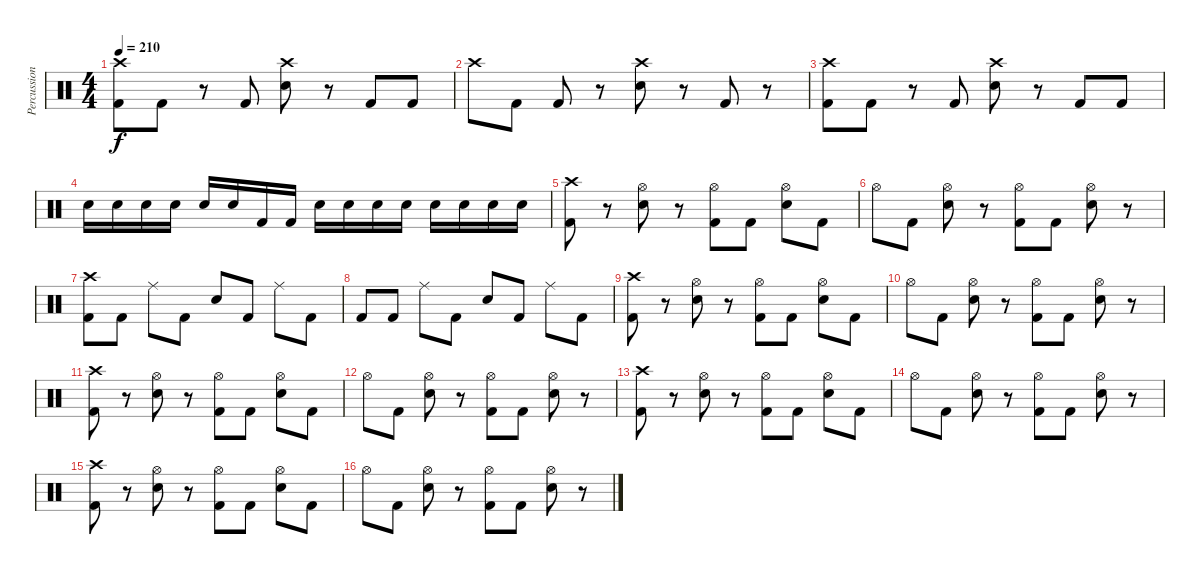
\track ("Percussion" "Percussion") {instrument percussion}
\staff {score}
\articulation defaults
\ts (4 4)
\tempo 210
\clef neutral
\ks c
("Crash high (hit)" "Kick (hit) 2").8{dy f} "Kick (hit) 2".8 r.8 "Kick (hit) 2".8 ("Crash high (hit)" "Electric Snare (hit)").8 r.8 "Kick (hit) 2".8 "Kick (hit) 2".8 |
"Crash high (hit)".8 "Kick (hit) 2".8 "Kick (hit) 2".8 r.8 ("Crash high (hit)" "Electric Snare (hit)").8 r.8 "Kick (hit) 2".8 r.8 |
("Crash high (hit)" "Kick (hit) 2").8 "Kick (hit) 2".8 r.8 "Kick (hit) 2".8 ("Crash high (hit)" "Electric Snare (hit)").8 r.8 "Kick (hit) 2".8 "Kick (hit) 2".8 |
"Electric Snare (hit)".16 "Electric Snare (hit)".16 "Electric Snare (hit)".16 "Electric Snare (hit)".16 "Electric Snare (hit)".16 "Electric Snare (hit)".16 "Kick (hit) 2".16 "Kick (hit) 2".16 "Electric Snare (hit)".16 "Electric Snare (hit)".16 "Electric Snare (hit)".16 "Electric Snare (hit)".16 "Electric Snare (hit)".16 "Electric Snare (hit)".16 "Electric Snare (hit)".16 "Electric Snare (hit)".16 |
("Crash high (hit)" "Kick (hit) 2").8 r.8 ("Hi-Hat (open)" "Electric Snare (hit)").8 r.8 ("Hi-Hat (open)" "Kick (hit) 2").8 "Kick (hit) 2".8 ("Hi-Hat (open)" "Electric Snare (hit)").8 "Kick (hit) 2".8 |
"Hi-Hat (open)".8 "Kick (hit) 2".8 ("Hi-Hat (open)" "Electric Snare (hit)").8 r.8 ("Hi-Hat (open)" "Kick (hit) 2").8 "Kick (hit) 2".8 ("Hi-Hat (open)" "Electric Snare (hit)").8 r.8 |
("Crash high (hit)" "Kick (hit) 2").8 "Kick (hit) 2".8 "Ride (middle)".8 "Kick (hit) 2".8 "Electric Snare (hit)".8 "Kick (hit) 2".8 "Ride (middle)".8 "Kick (hit) 2".8 |
"Kick (hit) 2".8 "Kick (hit) 2".8 "Ride (middle)".8 "Kick (hit) 2".8 "Electric Snare (hit)".8 "Kick (hit) 2".8 "Ride (middle)".8 "Kick (hit) 2".8 |
("Crash high (hit)" "Kick (hit) 2").8 r.8 ("Hi-Hat (open)" "Electric Snare (hit)").8 r.8 ("Hi-Hat (open)" "Kick (hit) 2").8 "Kick (hit) 2".8 ("Hi-Hat (open)" "Electric Snare (hit)").8 "Kick (hit) 2".8 |
"Hi-Hat (open)".8 "Kick (hit) 2".8 ("Hi-Hat (open)" "Electric Snare (hit)").8 r.8 ("Hi-Hat (open)" "Kick (hit) 2").8 "Kick (hit) 2".8 ("Hi-Hat (open)" "Electric Snare (hit)").8 r.8 |
("Crash high (hit)" "Kick (hit) 2").8 r.8 ("Hi-Hat (open)" "Electric Snare (hit)").8 r.8 ("Hi-Hat (open)" "Kick (hit) 2").8 "Kick (hit) 2".8 ("Hi-Hat (open)" "Electric Snare (hit)").8 "Kick (hit) 2".8 |
"Hi-Hat (open)".8 "Kick (hit) 2".8 ("Hi-Hat (open)" "Electric Snare (hit)").8 r.8 ("Hi-Hat (open)" "Kick (hit) 2").8 "Kick (hit) 2".8 ("Hi-Hat (open)" "Electric Snare (hit)").8 r.8 |
("Crash high (hit)" "Kick (hit) 2").8 r.8 ("Hi-Hat (open)" "Electric Snare (hit)").8 r.8 ("Hi-Hat (open)" "Kick (hit) 2").8 "Kick (hit) 2".8 ("Hi-Hat (open)" "Electric Snare (hit)").8 "Kick (hit) 2".8 |
"Hi-Hat (open)".8 "Kick (hit) 2".8 ("Hi-Hat (open)" "Electric Snare (hit)").8 r.8 ("Hi-Hat (open)" "Kick (hit) 2").8 "Kick (hit) 2".8 ("Hi-Hat (open)" "Electric Snare (hit)").8 r.8 |
("Crash high (hit)" "Kick (hit) 2").8 r.8 ("Hi-Hat (open)" "Electric Snare (hit)").8 r.8 ("Hi-Hat (open)" "Kick (hit) 2").8 "Kick (hit) 2".8 ("Hi-Hat (open)" "Electric Snare (hit)").8 "Kick (hit) 2".8 |
"Hi-Hat (open)".8 "Kick (hit) 2".8 ("Hi-Hat (open)" "Electric Snare (hit)").8 r.8 ("Hi-Hat (open)" "Kick (hit) 2").8 "Kick (hit) 2".8 ("Hi-Hat (open)" "Electric Snare (hit)").8 r.8
